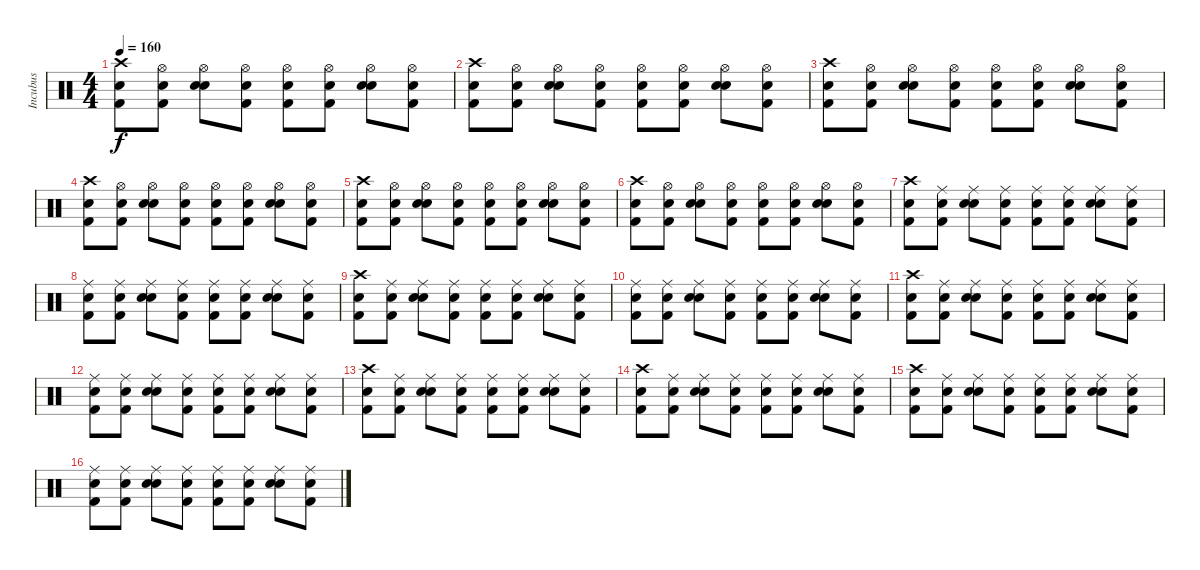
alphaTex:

\track ("Incubus" "Incubus") {instrument percussion}
\staff {score}
\articulation defaults
\ts (4 4)
\tempo 160
\clef neutral
\ks c
("Crash high (hit)" "Snare (hit) 2" "Kick (hit) 2").8{dy f} ("Hi-Hat (open)" "Snare (hit) 2" "Kick (hit) 2").8 ("Hi-Hat (open)" "Snare (hit) 2" "Snare (hit) 2").8 ("Hi-Hat (open)" "Snare (hit)" "Kick (hit) 2").8 ("Hi-Hat (open)" "Snare (hit) 2" "Kick (hit) 2").8 ("Hi-Hat (open)" "Snare (hit) 2" "Kick (hit) 2").8 ("Hi-Hat (open)" "Snare (hit) 2" "Snare (hit) 2").8 ("Hi-Hat (open)" "Snare (hit) 2" "Kick (hit) 2").8 |
("Crash high (hit)" "Snare (hit) 2" "Kick (hit) 2").8 ("Hi-Hat (open)" "Snare (hit) 2" "Kick (hit) 2").8 ("Hi-Hat (open)" "Snare (hit) 2" "Snare (hit) 2").8 ("Hi-Hat (open)" "Snare (hit)" "Kick (hit) 2").8 ("Hi-Hat (open)" "Snare (hit) 2" "Kick (hit) 2").8 ("Hi-Hat (open)" "Snare (hit) 2" "Kick (hit) 2").8 ("Hi-Hat (open)" "Snare (hit) 2" "Snare (hit) 2").8 ("Hi-Hat (open)" "Snare (hit) 2" "Kick (hit) 2").8 |
("Crash high (hit)" "Snare (hit) 2" "Kick (hit) 2").8 ("Hi-Hat (open)" "Snare (hit) 2" "Kick (hit) 2").8 ("Hi-Hat (open)" "Snare (hit) 2" "Snare (hit) 2").8 ("Hi-Hat (open)" "Snare (hit)" "Kick (hit) 2").8 ("Hi-Hat (open)" "Snare (hit) 2" "Kick (hit) 2").8 ("Hi-Hat (open)" "Snare (hit) 2" "Kick (hit) 2").8 ("Hi-Hat (open)" "Snare (hit) 2" "Snare (hit) 2").8 ("Hi-Hat (open)" "Snare (hit) 2" "Kick (hit) 2").8 |
("Crash high (hit)" "Snare (hit) 2" "Kick (hit) 2").8 ("Hi-Hat (open)" "Snare (hit) 2" "Kick (hit) 2").8 ("Hi-Hat (open)" "Snare (hit) 2" "Snare (hit) 2").8 ("Hi-Hat (open)" "Snare (hit)" "Kick (hit) 2").8 ("Hi-Hat (open)" "Snare (hit) 2" "Kick (hit) 2").8 ("Hi-Hat (open)" "Snare (hit) 2" "Kick (hit) 2").8 ("Hi-Hat (open)" "Snare (hit) 2" "Snare (hit) 2").8 ("Hi-Hat (open)" "Snare (hit) 2" "Kick (hit) 2").8 |
("Crash high (hit)" "Snare (hit) 2" "Kick (hit) 2").8 ("Hi-Hat (open)" "Snare (hit) 2" "Kick (hit) 2").8 ("Hi-Hat (open)" "Snare (hit) 2" "Snare (hit) 2").8 ("Hi-Hat (open)" "Snare (hit)" "Kick (hit) 2").8 ("Hi-Hat (open)" "Snare (hit) 2" "Kick (hit) 2").8 ("Hi-Hat (open)" "Snare (hit) 2" "Kick (hit) 2").8 ("Hi-Hat (open)" "Snare (hit) 2" "Snare (hit) 2").8 ("Hi-Hat (open)" "Snare (hit) 2" "Kick (hit) 2").8 |
("Crash high (hit)" "Snare (hit) 2" "Kick (hit) 2").8 ("Hi-Hat (open)" "Snare (hit) 2" "Kick (hit) 2").8 ("Hi-Hat (open)" "Snare (hit) 2" "Snare (hit) 2").8 ("Hi-Hat (open)" "Snare (hit)" "Kick (hit) 2").8 ("Hi-Hat (open)" "Snare (hit) 2" "Kick (hit) 2").8 ("Hi-Hat (open)" "Snare (hit) 2" "Kick (hit) 2").8 ("Hi-Hat (open)" "Snare (hit) 2" "Snare (hit) 2").8 ("Hi-Hat (open)" "Snare (hit) 2" "Kick (hit) 2").8 |
("Crash high (hit)" "Snare (hit) 2" "Kick (hit) 2").8 ("Ride (middle)" "Snare (hit) 2" "Kick (hit) 2").8 ("Ride (middle)" "Snare (hit) 2" "Snare (hit) 2").8 ("Ride (middle)" "Snare (hit)" "Kick (hit) 2").8 ("Ride (middle)" "Snare (hit) 2" "Kick (hit) 2").8 ("Ride (middle)" "Snare (hit) 2" "Kick (hit) 2").8 ("Ride (middle)" "Snare (hit) 2" "Snare (hit) 2").8 ("Ride (middle)" "Snare (hit) 2" "Kick (hit) 2").8 |
("Ride (middle)" "Snare (hit) 2" "Kick (hit) 2").8 ("Ride (middle)" "Snare (hit) 2" "Kick (hit) 2").8 ("Ride (middle)" "Snare (hit) 2" "Snare (hit) 2").8 ("Ride (middle)" "Snare (hit)" "Kick (hit) 2").8 ("Ride (middle)" "Snare (hit) 2" "Kick (hit) 2").8 ("Ride (middle)" "Snare (hit) 2" "Kick (hit) 2").8 ("Ride (middle)" "Snare (hit) 2" "Snare (hit) 2").8 ("Ride (middle)" "Snare (hit) 2" "Kick (hit) 2").8 |
("Crash high (hit)" "Snare (hit) 2" "Kick (hit) 2").8 ("Ride (middle)" "Snare (hit) 2" "Kick (hit) 2").8 ("Ride (middle)" "Snare (hit) 2" "Snare (hit) 2").8 ("Ride (middle)" "Snare (hit)" "Kick (hit) 2").8 ("Ride (middle)" "Snare (hit) 2" "Kick (hit) 2").8 ("Ride (middle)" "Snare (hit) 2" "Kick (hit) 2").8 ("Ride (middle)" "Snare (hit) 2" "Snare (hit) 2").8 ("Ride (middle)" "Snare (hit) 2" "Kick (hit) 2").8 |
("Ride (middle)" "Snare (hit) 2" "Kick (hit) 2").8 ("Ride (middle)" "Snare (hit) 2" "Kick (hit) 2").8 ("Ride (middle)" "Snare (hit) 2" "Snare (hit) 2").8 ("Ride (middle)" "Snare (hit)" "Kick (hit) 2").8 ("Ride (middle)" "Snare (hit) 2" "Kick (hit) 2").8 ("Ride (middle)" "Snare (hit) 2" "Kick (hit) 2").8 ("Ride (middle)" "Snare (hit) 2" "Snare (hit) 2").8 ("Ride (middle)" "Snare (hit) 2" "Kick (hit) 2").8 |
("Crash high (hit)" "Snare (hit) 2" "Kick (hit) 2").8 ("Ride (middle)" "Snare (hit) 2" "Kick (hit) 2").8 ("Ride (middle)" "Snare (hit) 2" "Snare (hit) 2").8 ("Ride (middle)" "Snare (hit)" "Kick (hit) 2").8 ("Ride (middle)" "Snare (hit) 2" "Kick (hit) 2").8 ("Ride (middle)" "Snare (hit) 2" "Kick (hit) 2").8 ("Ride (middle)" "Snare (hit) 2" "Snare (hit) 2").8 ("Ride (middle)" "Snare (hit) 2" "Kick (hit) 2").8 |
("Ride (middle)" "Snare (hit) 2" "Kick (hit) 2").8 ("Ride (middle)" "Snare (hit) 2" "Kick (hit) 2").8 ("Ride (middle)" "Snare (hit) 2" "Snare (hit) 2").8 ("Ride (middle)" "Snare (hit)" "Kick (hit) 2").8 ("Ride (middle)" "Snare (hit) 2" "Kick (hit) 2").8 ("Ride (middle)" "Snare (hit) 2" "Kick (hit) 2").8 ("Ride (middle)" "Snare (hit) 2" "Snare (hit) 2").8 ("Ride (middle)" "Snare (hit) 2" "Kick (hit) 2").8 |
("Crash high (hit)" "Snare (hit) 2" "Kick (hit) 2").8 ("Ride (middle)" "Snare (hit) 2" "Kick (hit) 2").8 ("Ride (middle)" "Snare (hit) 2" "Snare (hit) 2").8 ("Ride (middle)" "Snare (hit)" "Kick (hit) 2").8 ("Ride (middle)" "Snare (hit) 2" "Kick (hit) 2").8 ("Ride (middle)" "Snare (hit) 2" "Kick (hit) 2").8 ("Ride (middle)" "Snare (hit) 2" "Snare (hit) 2").8 ("Ride (middle)" "Snare (hit) 2" "Kick (hit) 2").8 |
("Crash high (hit)" "Snare (hit) 2" "Kick (hit) 2").8 ("Ride (middle)" "Snare (hit) 2" "Kick (hit) 2").8 ("Ride (middle)" "Snare (hit) 2" "Snare (hit) 2").8 ("Ride (middle)" "Snare (hit)" "Kick (hit) 2").8 ("Ride (middle)" "Snare (hit) 2" "Kick (hit) 2").8 ("Ride (middle)" "Snare (hit) 2" "Kick (hit) 2").8 ("Ride (middle)" "Snare (hit) 2" "Snare (hit) 2").8 ("Ride (middle)" "Snare (hit) 2" "Kick (hit) 2").8 |
("Crash high (hit)" "Snare (hit) 2" "Kick (hit) 2").8 ("Ride (middle)" "Snare (hit) 2" "Kick (hit) 2").8 ("Ride (middle)" "Snare (hit) 2" "Snare (hit) 2").8 ("Ride (middle)" "Snare (hit)" "Kick (hit) 2").8 ("Ride (middle)" "Snare (hit) 2" "Kick (hit) 2").8 ("Ride (middle)" "Snare (hit) 2" "Kick (hit) 2").8 ("Ride (middle)" "Snare (hit) 2" "Snare (hit) 2").8 ("Ride (middle)" "Snare (hit) 2" "Kick (hit) 2").8 |
("Ride (middle)" "Snare (hit) 2" "Kick (hit) 2").8 ("Ride (middle)" "Snare (hit) 2" "Kick (hit) 2").8 ("Ride (middle)" "Snare (hit) 2" "Snare (hit) 2").8 ("Ride (middle)" "Snare (hit)" "Kick (hit) 2").8 ("Ride (middle)" "Snare (hit) 2" "Kick (hit) 2").8 ("Ride (middle)" "Snare (hit) 2" "Kick (hit) 2").8 ("Ride (middle)" "Snare (hit) 2" "Snare (hit) 2").8 ("Ride (middle)" "Snare (hit) 2" "Kick (hit) 2").8
